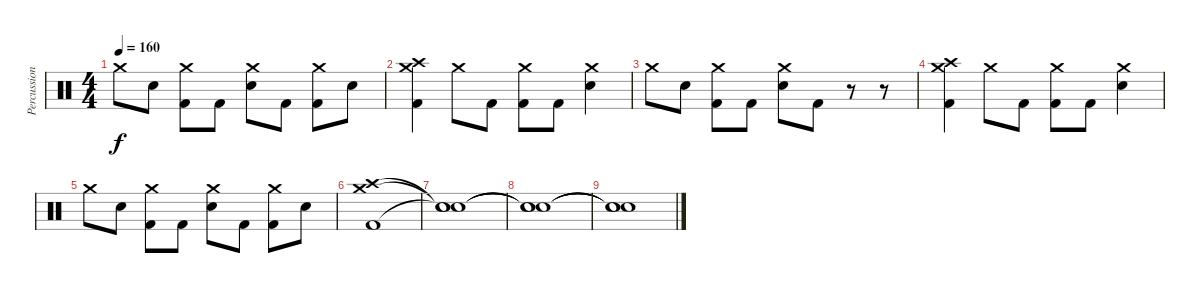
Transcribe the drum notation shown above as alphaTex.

\track ("Percussion" "Percussion") {instrument percussion}
\staff {score}
\articulation defaults
\ts (4 4)
\tempo 160
\clef neutral
\ks c "Crash medium (hit)".8{dy f} "Snare (hit) 2".8
("Crash medium (hit)" "Kick (hit) 2").8 "Kick (hit) 2".8 ("Crash medium (hit)" "Snare (hit) 2").8 "Kick (hit) 2".8 ("Crash medium (hit)" "Kick (hit) 2").8 "Snare (hit) 2".8 |
("Crash high (hit)" "Crash medium (hit)" "Kick (hit) 2").4 "Crash medium (hit)".8 "Kick (hit) 2".8 ("Crash medium (hit)" "Kick (hit) 2").8 "Kick (hit) 2".8 ("Crash medium (hit)" "Snare (hit) 2").4 |
"Crash medium (hit)".8 "Snare (hit) 2".8 ("Crash medium (hit)" "Kick (hit) 2").8 "Kick (hit) 2".8 ("Crash medium (hit)" "Snare (hit) 2").8 "Kick (hit) 2".8 r.8 r.8 |
("Crash high (hit)" "Crash medium (hit)" "Kick (hit) 2").4 "Crash medium (hit)".8 "Kick (hit) 2".8 ("Crash medium (hit)" "Kick (hit) 2").8 "Kick (hit) 2".8 ("Crash medium (hit)" "Snare (hit) 2").4 |
"Crash medium (hit)".8 "Snare (hit) 2".8 ("Crash medium (hit)" "Kick (hit) 2").8 "Kick (hit) 2".8 ("Crash medium (hit)" "Snare (hit) 2").8 "Kick (hit) 2".8 ("Crash medium (hit)" "Kick (hit) 2").8 "Snare (hit) 2".8 |
("Crash high (hit)" "Crash medium (hit)" "Kick (hit) 2").1{volume 0} |
("Snare (hit)"{t} "Snare (hit)"{t} "Snare (hit)"{t}).1 |
("Snare (hit)"{t} "Snare (hit)"{t} "Snare (hit)"{t}).1 |
("Snare (hit)"{t} "Snare (hit)"{t} "Snare (hit)"{t}).1
